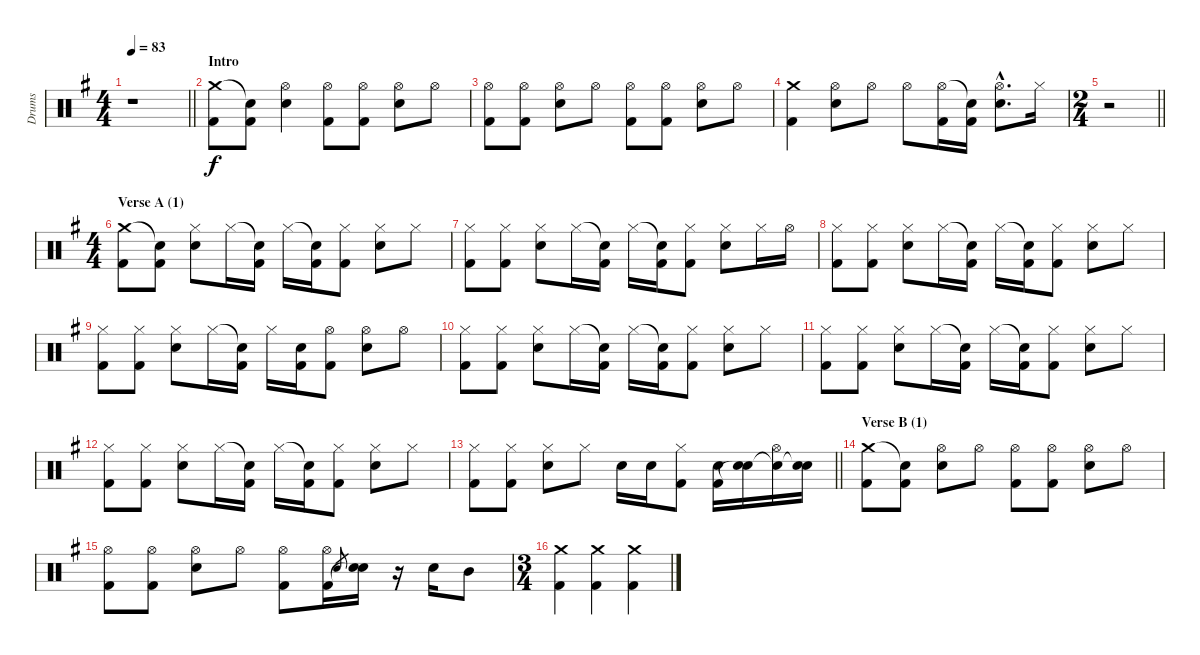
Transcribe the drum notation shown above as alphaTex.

\track ("Drums" "Drums") {instrument percussion}
\staff {score}
\articulation defaults
\ts (4 4)
\tempo 83
\clef neutral
\barLineRight lightlight
\ks eminor
r.1{dy f} |
\section ("" "Intro")
("Crash medium (hit)" "Kick (hit) 2").8 ("Snare (hit)"{t} "Kick (hit) 2").8 ("Hi-Hat (open)" "Electric Snare (hit)").4 ("Hi-Hat (open)" "Kick (hit) 2").8 ("Hi-Hat (open)" "Kick (hit) 2").8 ("Hi-Hat (open)" "Electric Snare (hit)").8 "Hi-Hat (open)".8 |
("Hi-Hat (open)" "Kick (hit) 2").8 ("Hi-Hat (open)" "Kick (hit) 2").8 ("Hi-Hat (open)" "Electric Snare (hit)").8 "Hi-Hat (open)".8 ("Hi-Hat (open)" "Kick (hit) 2").8 ("Hi-Hat (open)" "Kick (hit) 2").8 ("Hi-Hat (open)" "Electric Snare (hit)").8 "Hi-Hat (open)".8 |
("Crash medium (hit)" "Kick (hit) 2").4 ("Hi-Hat (open)" "Electric Snare (hit)").8 "Hi-Hat (open)".8 "Hi-Hat (open)".8 ("Hi-Hat (open)" "Kick (hit) 2").16 ("Snare (hit)"{t} "Kick (hit) 2").16 ("Hi-Hat (open)"{hac} "Electric Snare (hit)"{hac}).8{d} "Hi-Hat (closed)".16 |
\ts (2 4)
\barLineRight lightlight
r.2 |
\ts (4 4)
\section ("" "Verse A (1)")
("Crash medium (hit)" "Kick (hit) 2").8 ("Snare (hit)"{t} "Kick (hit) 2").8 ("Hi-Hat (closed)" "Electric Snare (hit)").8 "Hi-Hat (closed)".16 ("Snare (hit)"{t} "Kick (hit) 2").16 "Hi-Hat (closed)".16 ("Snare (hit)"{t} "Kick (hit) 2").16 ("Hi-Hat (closed)" "Kick (hit) 2").8 ("Hi-Hat (closed)" "Electric Snare (hit)").8 "Hi-Hat (closed)".8 |
("Hi-Hat (closed)" "Kick (hit) 2").8 ("Hi-Hat (closed)" "Kick (hit) 2").8 ("Hi-Hat (closed)" "Electric Snare (hit)").8 "Hi-Hat (closed)".16 ("Snare (hit)"{t} "Kick (hit) 2").16 "Hi-Hat (closed)".16 ("Snare (hit)"{t} "Kick (hit) 2").16 ("Hi-Hat (closed)" "Kick (hit) 2").8 ("Hi-Hat (closed)" "Electric Snare (hit)").8 "Hi-Hat (closed)".16 "Hi-Hat (open)".16 |
("Hi-Hat (closed)" "Kick (hit) 2").8 ("Hi-Hat (closed)" "Kick (hit) 2").8 ("Hi-Hat (closed)" "Electric Snare (hit)").8 "Hi-Hat (closed)".16 ("Snare (hit)"{t} "Kick (hit) 2").16 "Hi-Hat (closed)".16 ("Snare (hit)"{t} "Kick (hit) 2").16 ("Hi-Hat (closed)" "Kick (hit) 2").8 ("Hi-Hat (closed)" "Electric Snare (hit)").8 "Hi-Hat (closed)".8 |
("Hi-Hat (closed)" "Kick (hit) 2").8 ("Hi-Hat (closed)" "Kick (hit) 2").8 ("Hi-Hat (closed)" "Electric Snare (hit)").8 "Hi-Hat (closed)".16 ("Snare (hit)"{t} "Kick (hit) 2").16 "Hi-Hat (closed)".16 ("Electric Snare (hit)" "Kick (hit) 2").16 ("Hi-Hat (open)" "Kick (hit) 2").8 ("Hi-Hat (open)" "Electric Snare (hit)").8 "Hi-Hat (open)".8 |
("Hi-Hat (closed)" "Kick (hit) 2").8 ("Hi-Hat (closed)" "Kick (hit) 2").8 ("Hi-Hat (closed)" "Electric Snare (hit)").8 "Hi-Hat (closed)".16 ("Snare (hit)"{t} "Kick (hit) 2").16 "Hi-Hat (closed)".16 ("Snare (hit)"{t} "Kick (hit) 2").16 ("Hi-Hat (closed)" "Kick (hit) 2").8 ("Hi-Hat (closed)" "Electric Snare (hit)").8 "Hi-Hat (closed)".8 |
("Hi-Hat (closed)" "Kick (hit) 2").8 ("Hi-Hat (closed)" "Kick (hit) 2").8 ("Hi-Hat (closed)" "Electric Snare (hit)").8 "Hi-Hat (closed)".16 ("Snare (hit)"{t} "Kick (hit) 2").16 "Hi-Hat (closed)".16 ("Snare (hit)"{t} "Kick (hit) 2").16 ("Hi-Hat (closed)" "Kick (hit) 2").8 ("Hi-Hat (closed)" "Electric Snare (hit)").8 "Hi-Hat (closed)".8 |
("Hi-Hat (closed)" "Kick (hit) 2").8 ("Hi-Hat (closed)" "Kick (hit) 2").8 ("Hi-Hat (closed)" "Electric Snare (hit)").8 "Hi-Hat (closed)".16 ("Snare (hit)"{t} "Kick (hit) 2").16 "Hi-Hat (closed)".16 ("Snare (hit)"{t} "Kick (hit) 2").16 ("Hi-Hat (closed)" "Kick (hit) 2").8 ("Hi-Hat (closed)" "Electric Snare (hit)").8 "Hi-Hat (closed)".8 |
\barLineRight lightlight
("Hi-Hat (closed)" "Kick (hit) 2").8 ("Hi-Hat (closed)" "Kick (hit) 2").8 ("Hi-Hat (closed)" "Electric Snare (hit)").8 "Hi-Hat (closed)".8 "Electric Snare (hit)".16 "Electric Snare (hit)".16 ("Hi-Hat (closed)" "Kick (hit) 2").8 ("Electric Snare (hit)" "Kick (hit) 2").16 ("Electric Snare (hit)" "Snare (hit)"{t}).16 ("Hi-Hat (open)" "Snare (hit)"{t}).16 ("Electric Snare (hit)" "Snare (hit)"{t}).16 |
\section ("" "Verse B (1)")
("Crash medium (hit)" "Kick (hit) 2").8 ("Snare (hit)"{t} "Kick (hit) 2").8 ("Hi-Hat (open)" "Electric Snare (hit)").8 "Hi-Hat (open)".8 ("Hi-Hat (open)" "Kick (hit) 2").8 ("Hi-Hat (open)" "Kick (hit) 2").8 ("Hi-Hat (open)" "Electric Snare (hit)").8 "Hi-Hat (open)".8 |
("Hi-Hat (open)" "Kick (hit) 2").8 ("Hi-Hat (open)" "Kick (hit) 2").8 ("Hi-Hat (open)" "Electric Snare (hit)").8 "Hi-Hat (open)".8 ("Hi-Hat (open)" "Kick (hit) 2").8 ("Hi-Hat (open)" "Kick (hit) 2").16 "Electric Snare (hit)".8{gr} ("Electric Snare (hit)" "Snare (hit)"{t}).16 r.16 "Electric Snare (hit)".16 "Mid Tom (hit)".8 |
\ts (3 4)
("Crash medium (hit)" "Kick (hit) 2").4 ("Crash medium (hit)" "Kick (hit) 2").4 ("Crash medium (hit)" "Kick (hit) 2").4
